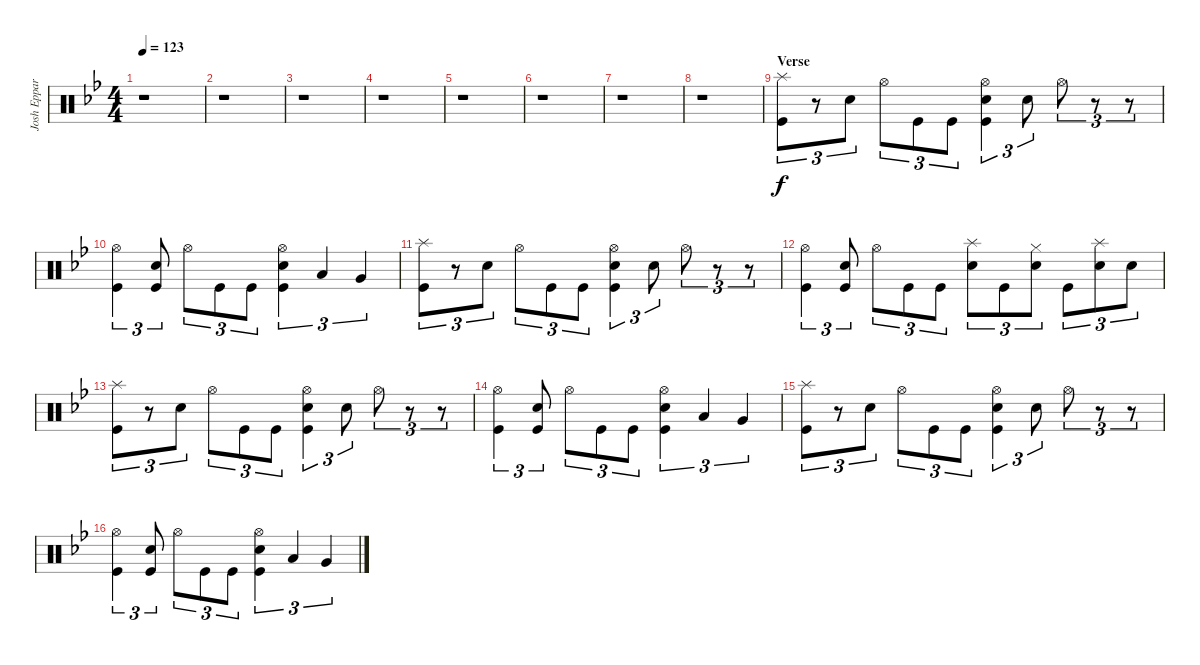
\track ("Josh Eppard" "Josh Eppar") {instrument percussion}
\staff {score}
\articulation defaults
\ts (4 4)
\tempo 123
\clef neutral
\ks gminor
r.1{dy f} |
r.1 |
r.1 |
r.1 |
r.1 |
r.1 |
r.1 |
r.1 |
\section ("" "Verse")
("Kick (hit)" "Splash (hit)").8{tu (3 2)} r.8{tu (3 2)} "Snare (hit) 2".8{tu (3 2)} "Hi-Hat (open)".8{tu (3 2)} "Kick (hit)".8{tu (3 2)} "Kick (hit)".8{tu (3 2)} ("Kick (hit)" "Snare (hit) 2" "Hi-Hat (open)").4{tu (3 2)} "Snare (hit) 2".8{tu (3 2)} "Hi-Hat (open)".8{tu (3 2)} r.8{tu (3 2)} r.8{tu (3 2)} |
("Kick (hit)" "Hi-Hat (open)").4{tu (3 2)} ("Kick (hit)" "Snare (hit) 2").8{tu (3 2)} "Hi-Hat (open)".8{tu (3 2)} "Kick (hit)".8{tu (3 2)} "Kick (hit)".8{tu (3 2)} ("Hi-Hat (open)" "Snare (hit) 2" "Kick (hit)").4{tu (3 2)} "Low Tom (hit)".4{tu (3 2)} "Very Low Tom (hit)".4{tu (3 2)} |
("Kick (hit)" "Splash (hit)").8{tu (3 2)} r.8{tu (3 2)} "Snare (hit) 2".8{tu (3 2)} "Hi-Hat (open)".8{tu (3 2)} "Kick (hit)".8{tu (3 2)} "Kick (hit)".8{tu (3 2)} ("Kick (hit)" "Snare (hit) 2" "Hi-Hat (open)").4{tu (3 2)} "Snare (hit) 2".8{tu (3 2)} "Hi-Hat (open)".8{tu (3 2)} r.8{tu (3 2)} r.8{tu (3 2)} |
("Kick (hit)" "Hi-Hat (open)").4{tu (3 2)} ("Kick (hit)" "Snare (hit) 2").8{tu (3 2)} "Hi-Hat (open)".8{tu (3 2)} "Kick (hit)".8{tu (3 2)} "Kick (hit)".8{tu (3 2)} ("Snare (hit) 2" "Splash (hit)").8{tu (3 2)} "Kick (hit)".8{tu (3 2)} ("Snare (hit) 2" "Hi-Hat (closed)").8{tu (3 2)} "Kick (hit)".8{tu (3 2)} ("Snare (hit) 2" "Splash (hit)").8{tu (3 2)} "Snare (hit) 2".8{tu (3 2)} |
("Kick (hit)" "Splash (hit)").8{tu (3 2)} r.8{tu (3 2)} "Snare (hit) 2".8{tu (3 2)} "Hi-Hat (open)".8{tu (3 2)} "Kick (hit)".8{tu (3 2)} "Kick (hit)".8{tu (3 2)} ("Kick (hit)" "Snare (hit) 2" "Hi-Hat (open)").4{tu (3 2)} "Snare (hit) 2".8{tu (3 2)} "Hi-Hat (open)".8{tu (3 2)} r.8{tu (3 2)} r.8{tu (3 2)} |
("Kick (hit)" "Hi-Hat (open)").4{tu (3 2)} ("Kick (hit)" "Snare (hit) 2").8{tu (3 2)} "Hi-Hat (open)".8{tu (3 2)} "Kick (hit)".8{tu (3 2)} "Kick (hit)".8{tu (3 2)} ("Hi-Hat (open)" "Snare (hit) 2" "Kick (hit)").4{tu (3 2)} "Low Tom (hit)".4{tu (3 2)} "Very Low Tom (hit)".4{tu (3 2)} |
("Kick (hit)" "Splash (hit)").8{tu (3 2)} r.8{tu (3 2)} "Snare (hit) 2".8{tu (3 2)} "Hi-Hat (open)".8{tu (3 2)} "Kick (hit)".8{tu (3 2)} "Kick (hit)".8{tu (3 2)} ("Kick (hit)" "Snare (hit) 2" "Hi-Hat (open)").4{tu (3 2)} "Snare (hit) 2".8{tu (3 2)} "Hi-Hat (open)".8{tu (3 2)} r.8{tu (3 2)} r.8{tu (3 2)} |
("Kick (hit)" "Hi-Hat (open)").4{tu (3 2)} ("Kick (hit)" "Snare (hit) 2").8{tu (3 2)} "Hi-Hat (open)".8{tu (3 2)} "Kick (hit)".8{tu (3 2)} "Kick (hit)".8{tu (3 2)} ("Hi-Hat (open)" "Snare (hit) 2" "Kick (hit)").4{tu (3 2)} "Low Tom (hit)".4{tu (3 2)} "Very Low Tom (hit)".4{tu (3 2)}
